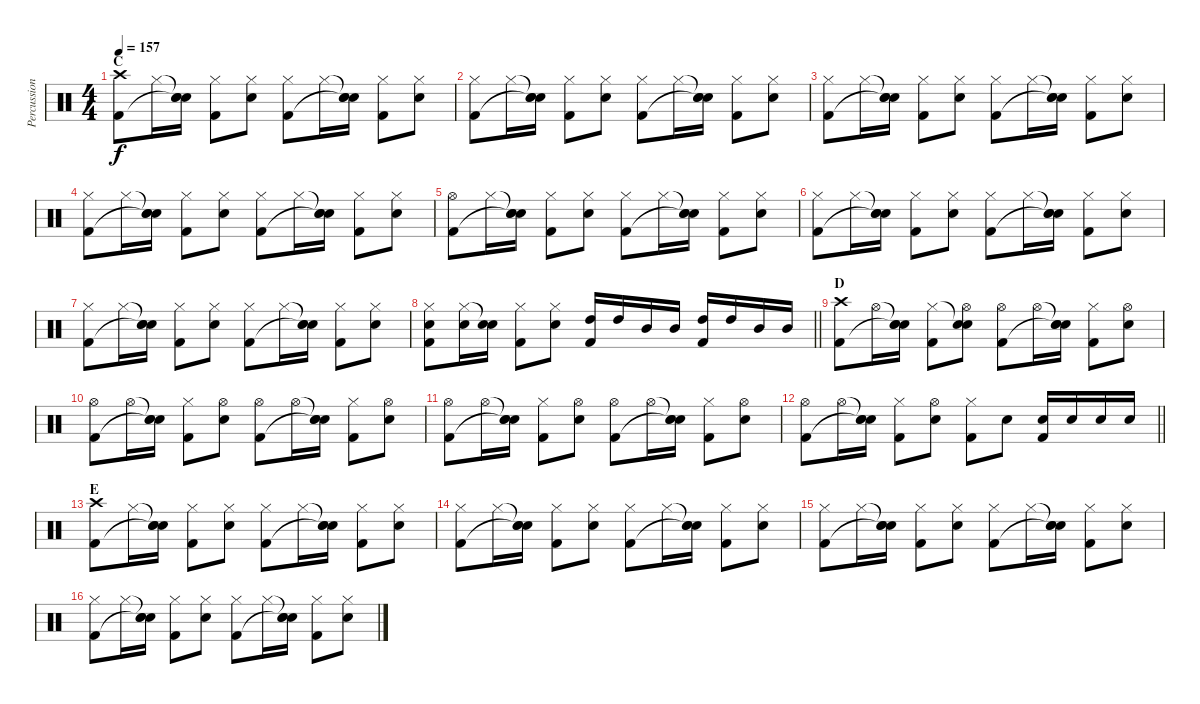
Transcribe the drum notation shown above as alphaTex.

\track ("Percussion" "Percussion") {instrument percussion}
\staff {score}
\articulation defaults
\ts (4 4)
\section ("" "C")
\tempo 157
\clef neutral
\ks c
("Crash high (hit)" "Kick (hit) 2").8{dy f} "Hi-Hat (closed)".16 ("Snare (hit)"{t} "Snare (hit)"{t} "Electric Snare (hit)").16 ("Hi-Hat (closed)" "Kick (hit) 2").8 ("Hi-Hat (closed)" "Electric Snare (hit)").8 ("Hi-Hat (closed)" "Kick (hit) 2").8 "Hi-Hat (closed)".16 ("Snare (hit)"{t} "Snare (hit)"{t} "Electric Snare (hit)").16 ("Hi-Hat (closed)" "Kick (hit) 2").8 ("Hi-Hat (closed)" "Electric Snare (hit)").8 |
("Hi-Hat (closed)" "Kick (hit) 2").8 "Hi-Hat (closed)".16 ("Snare (hit)"{t} "Snare (hit)"{t} "Electric Snare (hit)").16 ("Hi-Hat (closed)" "Kick (hit) 2").8 ("Hi-Hat (closed)" "Electric Snare (hit)").8 ("Hi-Hat (closed)" "Kick (hit) 2").8 "Hi-Hat (closed)".16 ("Snare (hit)"{t} "Snare (hit)"{t} "Electric Snare (hit)").16 ("Hi-Hat (closed)" "Kick (hit) 2").8 ("Hi-Hat (closed)" "Electric Snare (hit)").8 |
("Hi-Hat (closed)" "Kick (hit) 2").8 "Hi-Hat (closed)".16 ("Snare (hit)"{t} "Snare (hit)"{t} "Electric Snare (hit)").16 ("Hi-Hat (closed)" "Kick (hit) 2").8 ("Hi-Hat (closed)" "Electric Snare (hit)").8 ("Hi-Hat (closed)" "Kick (hit) 2").8 "Hi-Hat (closed)".16 ("Snare (hit)"{t} "Snare (hit)"{t} "Electric Snare (hit)").16 ("Hi-Hat (closed)" "Kick (hit) 2").8 ("Hi-Hat (closed)" "Electric Snare (hit)").8 |
("Hi-Hat (closed)" "Kick (hit) 2").8 "Hi-Hat (closed)".16 ("Snare (hit)"{t} "Snare (hit)"{t} "Electric Snare (hit)").16 ("Hi-Hat (closed)" "Kick (hit) 2").8 ("Hi-Hat (closed)" "Electric Snare (hit)").8 ("Hi-Hat (closed)" "Kick (hit) 2").8 "Hi-Hat (closed)".16 ("Snare (hit)"{t} "Snare (hit)"{t} "Electric Snare (hit)").16 ("Hi-Hat (closed)" "Kick (hit) 2").8 ("Hi-Hat (closed)" "Electric Snare (hit)").8 |
("Hi-Hat (open)" "Kick (hit) 2").8 "Hi-Hat (closed)".16 ("Snare (hit)"{t} "Snare (hit)"{t} "Electric Snare (hit)").16 ("Hi-Hat (closed)" "Kick (hit) 2").8 ("Hi-Hat (closed)" "Electric Snare (hit)").8 ("Hi-Hat (closed)" "Kick (hit) 2").8 "Hi-Hat (closed)".16 ("Snare (hit)"{t} "Snare (hit)"{t} "Electric Snare (hit)").16 ("Hi-Hat (closed)" "Kick (hit) 2").8 ("Hi-Hat (closed)" "Electric Snare (hit)").8 |
("Hi-Hat (closed)" "Kick (hit) 2").8 "Hi-Hat (closed)".16 ("Snare (hit)"{t} "Snare (hit)"{t} "Electric Snare (hit)").16 ("Hi-Hat (closed)" "Kick (hit) 2").8 ("Hi-Hat (closed)" "Electric Snare (hit)").8 ("Hi-Hat (closed)" "Kick (hit) 2").8 "Hi-Hat (closed)".16 ("Snare (hit)"{t} "Snare (hit)"{t} "Electric Snare (hit)").16 ("Hi-Hat (closed)" "Kick (hit) 2").8 ("Hi-Hat (closed)" "Electric Snare (hit)").8 |
("Hi-Hat (closed)" "Kick (hit) 2").8 "Hi-Hat (closed)".16 ("Snare (hit)"{t} "Snare (hit)"{t} "Electric Snare (hit)").16 ("Hi-Hat (closed)" "Kick (hit) 2").8 ("Hi-Hat (closed)" "Electric Snare (hit)").8 ("Hi-Hat (closed)" "Kick (hit) 2").8 "Hi-Hat (closed)".16 ("Snare (hit)"{t} "Snare (hit)"{t} "Electric Snare (hit)").16 ("Hi-Hat (closed)" "Kick (hit) 2").8 ("Hi-Hat (closed)" "Electric Snare (hit)").8 |
\barLineRight lightlight
("Hi-Hat (closed)" "Electric Snare (hit)" "Kick (hit) 2").8 ("Hi-Hat (closed)" "Electric Snare (hit)").16 ("Snare (hit)"{t} "Electric Snare (hit)").16 ("Hi-Hat (closed)" "Kick (hit) 2").8 ("Hi-Hat (closed)" "Electric Snare (hit)").8 ("High Tom (hit)" "Kick (hit) 2").16 "High Tom (hit)".16 "Mid Tom (hit)".16 "Mid Tom (hit)".16 ("High Tom (hit)" "Kick (hit) 2").16 "High Tom (hit)".16 "Mid Tom (hit)".16 "Mid Tom (hit)".16 |
\section ("" "D")
("Crash high (hit)" "Kick (hit) 2").8 "Hi-Hat (open)".16 ("Snare (hit)"{t} "Snare (hit)"{t} "Electric Snare (hit)").16 ("Hi-Hat (closed)" "Kick (hit) 2").8 ("Snare (hit)"{t} "Hi-Hat (open)" "Electric Snare (hit)").8 ("Hi-Hat (open)" "Kick (hit) 2").8 "Hi-Hat (open)".16 ("Snare (hit)"{t} "Snare (hit)"{t} "Electric Snare (hit)").16 ("Hi-Hat (closed)" "Kick (hit) 2").8 ("Hi-Hat (open)" "Electric Snare (hit)").8 |
("Hi-Hat (open)" "Kick (hit) 2").8 "Hi-Hat (open)".16 ("Snare (hit)"{t} "Snare (hit)"{t} "Electric Snare (hit)").16 ("Hi-Hat (closed)" "Kick (hit) 2").8 ("Hi-Hat (open)" "Electric Snare (hit)").8 ("Hi-Hat (open)" "Kick (hit) 2").8 "Hi-Hat (open)".16 ("Snare (hit)"{t} "Snare (hit)"{t} "Electric Snare (hit)").16 ("Hi-Hat (closed)" "Kick (hit) 2").8 ("Hi-Hat (open)" "Electric Snare (hit)").8 |
("Hi-Hat (open)" "Kick (hit) 2").8 "Hi-Hat (open)".16 ("Snare (hit)"{t} "Snare (hit)"{t} "Electric Snare (hit)").16 ("Hi-Hat (closed)" "Kick (hit) 2").8 ("Hi-Hat (open)" "Electric Snare (hit)").8 ("Hi-Hat (open)" "Kick (hit) 2").8 "Hi-Hat (open)".16 ("Snare (hit)"{t} "Snare (hit)"{t} "Electric Snare (hit)").16 ("Hi-Hat (closed)" "Kick (hit) 2").8 ("Hi-Hat (open)" "Electric Snare (hit)").8 |
\barLineRight lightlight
("Hi-Hat (open)" "Kick (hit) 2").8 "Hi-Hat (open)".16 ("Snare (hit)"{t} "Snare (hit)"{t} "Electric Snare (hit)").16 ("Hi-Hat (closed)" "Kick (hit) 2").8 ("Hi-Hat (open)" "Electric Snare (hit)").8 ("Hi-Hat (closed)" "Kick (hit) 2").8 "Electric Snare (hit)".8 ("Electric Snare (hit)" "Kick (hit) 2").16 "Electric Snare (hit)".16 "Electric Snare (hit)".16 "Electric Snare (hit)".16 |
\section ("" "E")
("Crash high (hit)" "Kick (hit) 2").8 "Hi-Hat (closed)".16 ("Snare (hit)"{t} "Snare (hit)"{t} "Electric Snare (hit)").16 ("Hi-Hat (closed)" "Kick (hit) 2").8 ("Hi-Hat (closed)" "Electric Snare (hit)").8 ("Hi-Hat (closed)" "Kick (hit) 2").8 "Hi-Hat (closed)".16 ("Snare (hit)"{t} "Snare (hit)"{t} "Electric Snare (hit)").16 ("Hi-Hat (closed)" "Kick (hit) 2").8 ("Hi-Hat (closed)" "Electric Snare (hit)").8 |
("Hi-Hat (closed)" "Kick (hit) 2").8 "Hi-Hat (closed)".16 ("Snare (hit)"{t} "Snare (hit)"{t} "Electric Snare (hit)").16 ("Hi-Hat (closed)" "Kick (hit) 2").8 ("Hi-Hat (closed)" "Electric Snare (hit)").8 ("Hi-Hat (closed)" "Kick (hit) 2").8 "Hi-Hat (closed)".16 ("Snare (hit)"{t} "Snare (hit)"{t} "Electric Snare (hit)").16 ("Hi-Hat (closed)" "Kick (hit) 2").8 ("Hi-Hat (closed)" "Electric Snare (hit)").8 |
("Hi-Hat (closed)" "Kick (hit) 2").8 "Hi-Hat (closed)".16 ("Snare (hit)"{t} "Snare (hit)"{t} "Electric Snare (hit)").16 ("Hi-Hat (closed)" "Kick (hit) 2").8 ("Hi-Hat (closed)" "Electric Snare (hit)").8 ("Hi-Hat (closed)" "Kick (hit) 2").8 "Hi-Hat (closed)".16 ("Snare (hit)"{t} "Snare (hit)"{t} "Electric Snare (hit)").16 ("Hi-Hat (closed)" "Kick (hit) 2").8 ("Hi-Hat (closed)" "Electric Snare (hit)").8 |
("Hi-Hat (closed)" "Kick (hit) 2").8 "Hi-Hat (closed)".16 ("Snare (hit)"{t} "Snare (hit)"{t} "Electric Snare (hit)").16 ("Hi-Hat (closed)" "Kick (hit) 2").8 ("Hi-Hat (closed)" "Electric Snare (hit)").8 ("Hi-Hat (closed)" "Kick (hit) 2").8 "Hi-Hat (closed)".16 ("Snare (hit)"{t} "Snare (hit)"{t} "Electric Snare (hit)").16 ("Hi-Hat (closed)" "Kick (hit) 2").8 ("Hi-Hat (closed)" "Electric Snare (hit)").8
